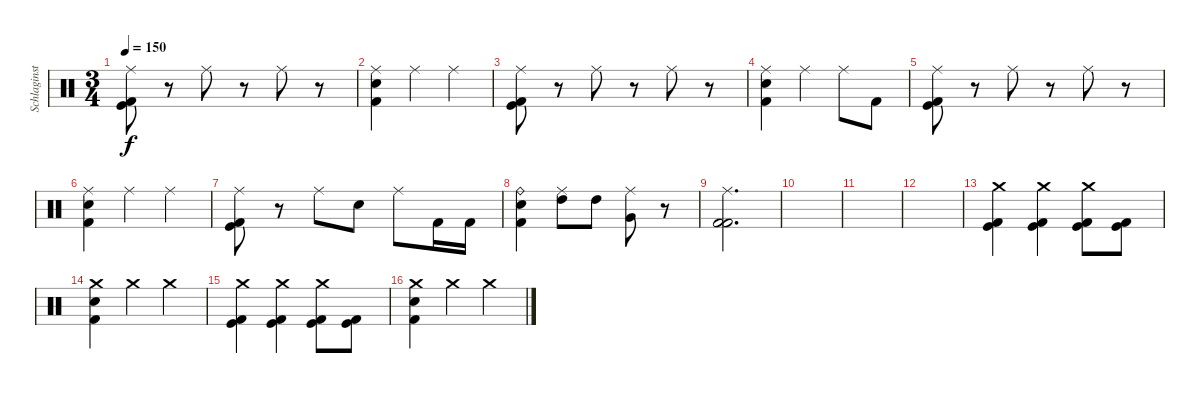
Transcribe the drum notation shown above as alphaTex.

\track ("Schlaginstrumente - Auswahl" "Schlaginst") {instrument percussion}
\staff {score}
\articulation defaults
\ts (3 4)
\tempo 150
\clef neutral
\ks c
("Ride (middle)" "Kick (hit)" "Kick (hit) 2").8{dy f} r.8 "Ride (middle)".8 r.8 "Ride (middle)".8 r.8 |
("Ride (middle)" "Electric Snare (hit)" "Kick (hit) 2").4 "Ride (middle)".4 "Ride (middle)".4 |
("Ride (middle)" "Kick (hit)" "Kick (hit) 2").8 r.8 "Ride (middle)".8 r.8 "Ride (middle)".8 r.8 |
("Ride (middle)" "Electric Snare (hit)" "Kick (hit) 2").4 "Ride (middle)".4 "Ride (middle)".8 "Kick (hit) 2".8 |
("Ride (middle)" "Kick (hit)" "Kick (hit) 2").8 r.8 "Ride (middle)".8 r.8 "Ride (middle)".8 r.8 |
("Ride (middle)" "Electric Snare (hit)" "Kick (hit) 2").4 "Ride (middle)".4 "Ride (middle)".4 |
("Ride (middle)" "Kick (hit)" "Kick (hit) 2").8 r.8 "Ride (middle)".8 "Electric Snare (hit)".8 "Ride (middle)".8 "Kick (hit) 2".16 "Kick (hit) 2".16 |
("Ride (bell)" "Electric Snare (hit)" "Kick (hit) 2").4 ("Ride (middle)" "High Tom (hit)").8 "High Tom (hit)".8 ("Ride (middle)" "Very Low Tom (hit)").8 r.8 |
("Ride (middle)" "Kick (hit) 2" "Kick (hit) 2").2{d} |
|
|
|
("Crash medium (hit)" "Kick (hit)" "Kick (hit) 2").4 ("Crash medium (hit)" "Kick (hit)" "Kick (hit) 2").4 ("Crash medium (hit)" "Kick (hit)" "Kick (hit) 2").8 ("Kick (hit)" "Kick (hit) 2").8 |
("Crash medium (hit)" "Electric Snare (hit)" "Kick (hit) 2").4 "Crash medium (hit)".4 "Crash medium (hit)".4 |
("Crash medium (hit)" "Kick (hit)" "Kick (hit) 2").4 ("Crash medium (hit)" "Kick (hit)" "Kick (hit) 2").4 ("Crash medium (hit)" "Kick (hit)" "Kick (hit) 2").8 ("Kick (hit)" "Kick (hit) 2").8 |
("Crash medium (hit)" "Electric Snare (hit)" "Kick (hit) 2").4 "Crash medium (hit)".4 "Crash medium (hit)".4
